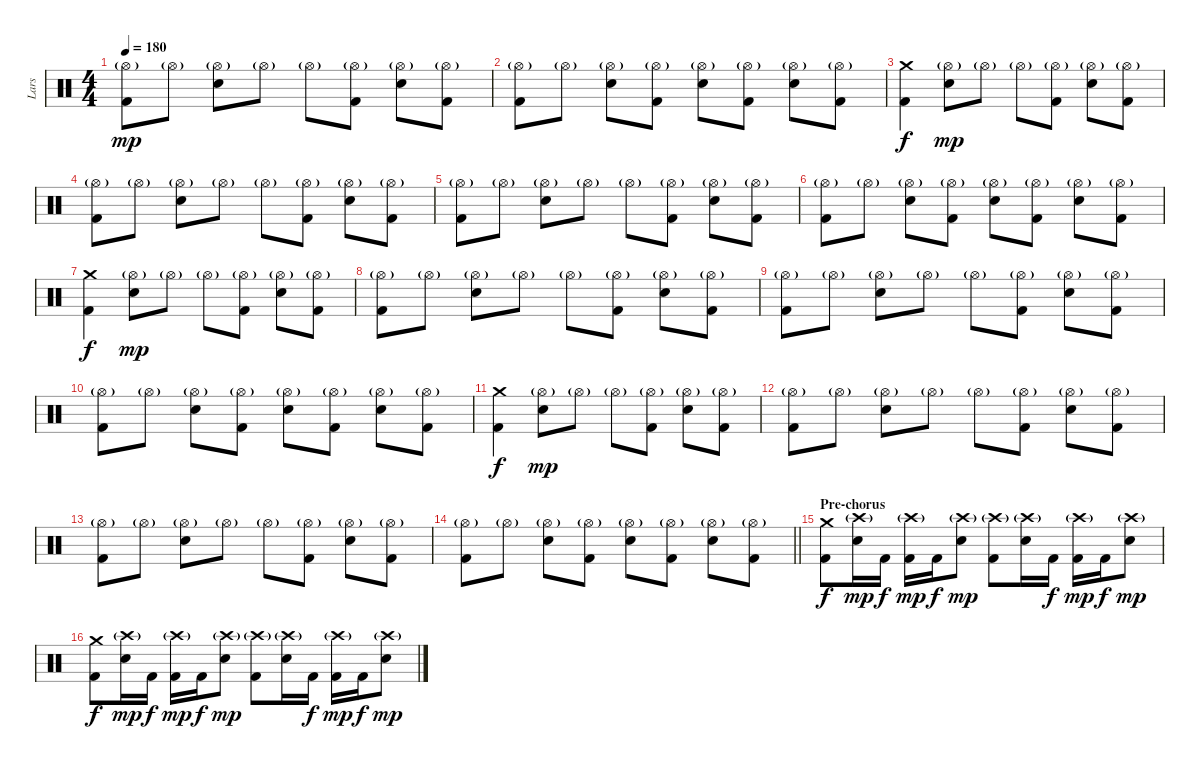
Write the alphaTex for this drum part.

\track ("Lars" "Lars") {instrument percussion}
\staff {score}
\articulation defaults
\ts (4 4)
\tempo 180
\clef neutral
\ks c
("Hi-Hat (open)"{g} "Kick (hit) 2").8{dy mp} "Hi-Hat (open)"{g}.8 ("Hi-Hat (open)"{g} "Electric Snare (hit)").8 "Hi-Hat (open)"{g}.8 "Hi-Hat (open)"{g}.8 ("Hi-Hat (open)"{g} "Kick (hit) 2").8 ("Hi-Hat (open)"{g} "Electric Snare (hit)").8 ("Hi-Hat (open)"{g} "Kick (hit) 2").8 |
("Hi-Hat (open)"{g} "Kick (hit) 2").8 "Hi-Hat (open)"{g}.8 ("Hi-Hat (open)"{g} "Electric Snare (hit)").8 ("Hi-Hat (open)"{g} "Kick (hit) 2").8 ("Hi-Hat (open)"{g} "Electric Snare (hit)").8 ("Hi-Hat (open)"{g} "Kick (hit) 2").8 ("Hi-Hat (open)"{g} "Electric Snare (hit)").8 ("Hi-Hat (open)"{g} "Kick (hit) 2").8 |
("Crash medium (hit)" "Kick (hit) 2").4{dy f} ("Hi-Hat (open)"{g} "Electric Snare (hit)").8{dy mp} "Hi-Hat (open)"{g}.8 "Hi-Hat (open)"{g}.8 ("Hi-Hat (open)"{g} "Kick (hit) 2").8 ("Hi-Hat (open)"{g} "Electric Snare (hit)").8 ("Hi-Hat (open)"{g} "Kick (hit) 2").8 |
("Hi-Hat (open)"{g} "Kick (hit) 2").8 "Hi-Hat (open)"{g}.8 ("Hi-Hat (open)"{g} "Electric Snare (hit)").8 "Hi-Hat (open)"{g}.8 "Hi-Hat (open)"{g}.8 ("Hi-Hat (open)"{g} "Kick (hit) 2").8 ("Hi-Hat (open)"{g} "Electric Snare (hit)").8 ("Hi-Hat (open)"{g} "Kick (hit) 2").8 |
("Hi-Hat (open)"{g} "Kick (hit) 2").8 "Hi-Hat (open)"{g}.8 ("Hi-Hat (open)"{g} "Electric Snare (hit)").8 "Hi-Hat (open)"{g}.8 "Hi-Hat (open)"{g}.8 ("Hi-Hat (open)"{g} "Kick (hit) 2").8 ("Hi-Hat (open)"{g} "Electric Snare (hit)").8 ("Hi-Hat (open)"{g} "Kick (hit) 2").8 |
("Hi-Hat (open)"{g} "Kick (hit) 2").8 "Hi-Hat (open)"{g}.8 ("Hi-Hat (open)"{g} "Electric Snare (hit)").8 ("Hi-Hat (open)"{g} "Kick (hit) 2").8 ("Hi-Hat (open)"{g} "Electric Snare (hit)").8 ("Hi-Hat (open)"{g} "Kick (hit) 2").8 ("Hi-Hat (open)"{g} "Electric Snare (hit)").8 ("Hi-Hat (open)"{g} "Kick (hit) 2").8 |
("Crash medium (hit)" "Kick (hit) 2").4{dy f} ("Hi-Hat (open)"{g} "Electric Snare (hit)").8{dy mp} "Hi-Hat (open)"{g}.8 "Hi-Hat (open)"{g}.8 ("Hi-Hat (open)"{g} "Kick (hit) 2").8 ("Hi-Hat (open)"{g} "Electric Snare (hit)").8 ("Hi-Hat (open)"{g} "Kick (hit) 2").8 |
("Hi-Hat (open)"{g} "Kick (hit) 2").8 "Hi-Hat (open)"{g}.8 ("Hi-Hat (open)"{g} "Electric Snare (hit)").8 "Hi-Hat (open)"{g}.8 "Hi-Hat (open)"{g}.8 ("Hi-Hat (open)"{g} "Kick (hit) 2").8 ("Hi-Hat (open)"{g} "Electric Snare (hit)").8 ("Hi-Hat (open)"{g} "Kick (hit) 2").8 |
("Hi-Hat (open)"{g} "Kick (hit) 2").8 "Hi-Hat (open)"{g}.8 ("Hi-Hat (open)"{g} "Electric Snare (hit)").8 "Hi-Hat (open)"{g}.8 "Hi-Hat (open)"{g}.8 ("Hi-Hat (open)"{g} "Kick (hit) 2").8 ("Hi-Hat (open)"{g} "Electric Snare (hit)").8 ("Hi-Hat (open)"{g} "Kick (hit) 2").8 |
("Hi-Hat (open)"{g} "Kick (hit) 2").8 "Hi-Hat (open)"{g}.8 ("Hi-Hat (open)"{g} "Electric Snare (hit)").8 ("Hi-Hat (open)"{g} "Kick (hit) 2").8 ("Hi-Hat (open)"{g} "Electric Snare (hit)").8 ("Hi-Hat (open)"{g} "Kick (hit) 2").8 ("Hi-Hat (open)"{g} "Electric Snare (hit)").8 ("Hi-Hat (open)"{g} "Kick (hit) 2").8 |
("Crash medium (hit)" "Kick (hit) 2").4{dy f} ("Hi-Hat (open)"{g} "Electric Snare (hit)").8{dy mp} "Hi-Hat (open)"{g}.8 "Hi-Hat (open)"{g}.8 ("Hi-Hat (open)"{g} "Kick (hit) 2").8 ("Hi-Hat (open)"{g} "Electric Snare (hit)").8 ("Hi-Hat (open)"{g} "Kick (hit) 2").8 |
("Hi-Hat (open)"{g} "Kick (hit) 2").8 "Hi-Hat (open)"{g}.8 ("Hi-Hat (open)"{g} "Electric Snare (hit)").8 "Hi-Hat (open)"{g}.8 "Hi-Hat (open)"{g}.8 ("Hi-Hat (open)"{g} "Kick (hit) 2").8 ("Hi-Hat (open)"{g} "Electric Snare (hit)").8 ("Hi-Hat (open)"{g} "Kick (hit) 2").8 |
("Hi-Hat (open)"{g} "Kick (hit) 2").8 "Hi-Hat (open)"{g}.8 ("Hi-Hat (open)"{g} "Electric Snare (hit)").8 "Hi-Hat (open)"{g}.8 "Hi-Hat (open)"{g}.8 ("Hi-Hat (open)"{g} "Kick (hit) 2").8 ("Hi-Hat (open)"{g} "Electric Snare (hit)").8 ("Hi-Hat (open)"{g} "Kick (hit) 2").8 |
\barLineRight lightlight
("Hi-Hat (open)"{g} "Kick (hit) 2").8 "Hi-Hat (open)"{g}.8 ("Hi-Hat (open)"{g} "Electric Snare (hit)").8 ("Hi-Hat (open)"{g} "Kick (hit) 2").8 ("Hi-Hat (open)"{g} "Electric Snare (hit)").8 ("Hi-Hat (open)"{g} "Kick (hit) 2").8 ("Hi-Hat (open)"{g} "Electric Snare (hit)").8 ("Hi-Hat (open)"{g} "Kick (hit) 2").8 |
\section ("" "Pre-chorus")
("Crash medium (hit)" "Kick (hit) 2").8{dy f} ("Crash high (hit)"{g} "Electric Snare (hit)").16{dy mp} "Kick (hit) 2".16{dy f} ("Crash high (hit)"{g} "Kick (hit) 2").16{dy mp} "Kick (hit) 2".16{dy f} ("Crash high (hit)"{g} "Electric Snare (hit)").8{dy mp} ("Crash high (hit)"{g} "Kick (hit) 2").8 ("Crash high (hit)"{g} "Electric Snare (hit)").16 "Kick (hit) 2".16{dy f} ("Crash high (hit)"{g} "Kick (hit) 2").16{dy mp} "Kick (hit) 2".16{dy f} ("Crash high (hit)"{g} "Electric Snare (hit)").8{dy mp} |
("Crash medium (hit)" "Kick (hit) 2").8{dy f} ("Crash high (hit)"{g} "Electric Snare (hit)").16{dy mp} "Kick (hit) 2".16{dy f} ("Crash high (hit)"{g} "Kick (hit) 2").16{dy mp} "Kick (hit) 2".16{dy f} ("Crash high (hit)"{g} "Electric Snare (hit)").8{dy mp} ("Crash high (hit)"{g} "Kick (hit) 2").8 ("Crash high (hit)"{g} "Electric Snare (hit)").16 "Kick (hit) 2".16{dy f} ("Crash high (hit)"{g} "Kick (hit) 2").16{dy mp} "Kick (hit) 2".16{dy f} ("Crash high (hit)"{g} "Electric Snare (hit)").8{dy mp}
